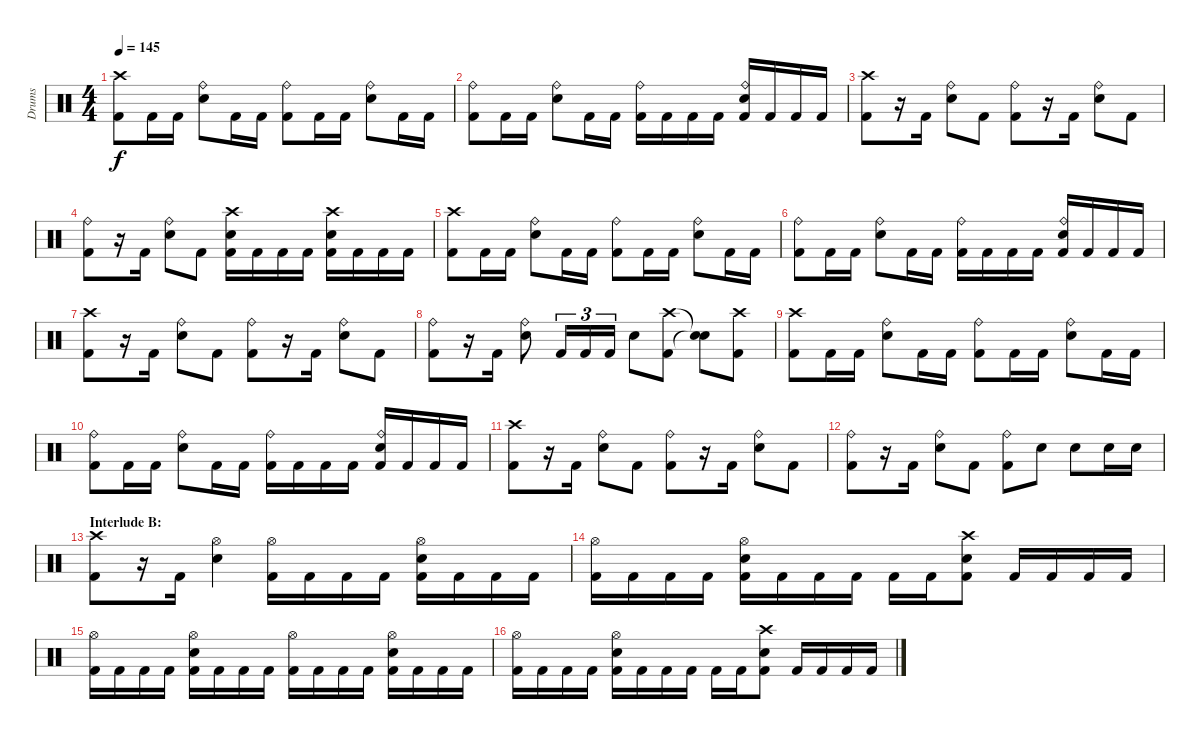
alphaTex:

\track ("Drums" "Drums") {instrument percussion}
\staff {score}
\articulation defaults
\ts (4 4)
\tempo 145
\clef neutral
\ks c
("Crash high (hit)" "Kick (hit) 2").8{dy f} "Kick (hit) 2".16 "Kick (hit) 2".16 ("Ride (bell)" "Snare (hit) 2").8 "Kick (hit) 2".16 "Kick (hit) 2".16 ("Ride (bell)" "Kick (hit) 2").8 "Kick (hit) 2".16 "Kick (hit) 2".16 ("Ride (bell)" "Snare (hit) 2").8 "Kick (hit) 2".16 "Kick (hit) 2".16 |
("Ride (bell)" "Kick (hit) 2").8 "Kick (hit) 2".16 "Kick (hit) 2".16 ("Ride (bell)" "Snare (hit) 2").8 "Kick (hit) 2".16 "Kick (hit) 2".16 ("Ride (bell)" "Kick (hit) 2").16 "Kick (hit) 2".16 "Kick (hit) 2".16 "Kick (hit) 2".16 ("Ride (bell)" "Snare (hit) 2" "Kick (hit) 2").16 "Kick (hit) 2".16 "Kick (hit) 2".16 "Kick (hit) 2".16 |
("Crash high (hit)" "Kick (hit) 2").8 r.16 "Kick (hit) 2".16 ("Ride (bell)" "Snare (hit) 2").8 "Kick (hit) 2".8 ("Ride (bell)" "Kick (hit) 2").8 r.16 "Kick (hit) 2".16 ("Ride (bell)" "Snare (hit) 2").8 "Kick (hit) 2".8 |
("Ride (bell)" "Kick (hit) 2").8 r.16 "Kick (hit) 2".16 ("Ride (bell)" "Snare (hit) 2").8 "Kick (hit) 2".8 ("Crash high (hit)" "Snare (hit) 2" "Kick (hit) 2").16 "Kick (hit) 2".16 "Kick (hit) 2".16 "Kick (hit) 2".16 ("Crash high (hit)" "Snare (hit) 2" "Kick (hit) 2").16 "Kick (hit) 2".16 "Kick (hit) 2".16 "Kick (hit) 2".16 |
("Crash high (hit)" "Kick (hit) 2").8 "Kick (hit) 2".16 "Kick (hit) 2".16 ("Ride (bell)" "Snare (hit) 2").8 "Kick (hit) 2".16 "Kick (hit) 2".16 ("Ride (bell)" "Kick (hit) 2").8 "Kick (hit) 2".16 "Kick (hit) 2".16 ("Ride (bell)" "Snare (hit) 2").8 "Kick (hit) 2".16 "Kick (hit) 2".16 |
("Ride (bell)" "Kick (hit) 2").8 "Kick (hit) 2".16 "Kick (hit) 2".16 ("Ride (bell)" "Snare (hit) 2").8 "Kick (hit) 2".16 "Kick (hit) 2".16 ("Ride (bell)" "Kick (hit) 2").16 "Kick (hit) 2".16 "Kick (hit) 2".16 "Kick (hit) 2".16 ("Ride (bell)" "Snare (hit) 2" "Kick (hit) 2").16 "Kick (hit) 2".16 "Kick (hit) 2".16 "Kick (hit) 2".16 |
("Crash high (hit)" "Kick (hit) 2").8 r.16 "Kick (hit) 2".16 ("Ride (bell)" "Snare (hit) 2").8 "Kick (hit) 2".8 ("Ride (bell)" "Kick (hit) 2").8 r.16 "Kick (hit) 2".16 ("Ride (bell)" "Snare (hit) 2").8 "Kick (hit) 2".8 |
("Ride (bell)" "Kick (hit) 2").8 r.16 "Kick (hit) 2".16 ("Ride (bell)" "Snare (hit) 2").8 "Kick (hit) 2".16{tu (3 2)} "Kick (hit) 2".16{tu (3 2)} "Kick (hit) 2".16{tu (3 2)} "Snare (hit) 2".8 ("Crash high (hit)" "Kick (hit) 2").8 ("Snare (hit)"{t} "Snare (hit)"{t}).8 ("Crash high (hit)" "Kick (hit) 2").8 |
("Crash high (hit)" "Kick (hit) 2").8 "Kick (hit) 2".16 "Kick (hit) 2".16 ("Ride (bell)" "Snare (hit) 2").8 "Kick (hit) 2".16 "Kick (hit) 2".16 ("Ride (bell)" "Kick (hit) 2").8 "Kick (hit) 2".16 "Kick (hit) 2".16 ("Ride (bell)" "Snare (hit) 2").8 "Kick (hit) 2".16 "Kick (hit) 2".16 |
("Ride (bell)" "Kick (hit) 2").8 "Kick (hit) 2".16 "Kick (hit) 2".16 ("Ride (bell)" "Snare (hit) 2").8 "Kick (hit) 2".16 "Kick (hit) 2".16 ("Ride (bell)" "Kick (hit) 2").16 "Kick (hit) 2".16 "Kick (hit) 2".16 "Kick (hit) 2".16 ("Ride (bell)" "Snare (hit) 2" "Kick (hit) 2").16 "Kick (hit) 2".16 "Kick (hit) 2".16 "Kick (hit) 2".16 |
("Crash high (hit)" "Kick (hit) 2").8 r.16 "Kick (hit) 2".16 ("Ride (bell)" "Snare (hit) 2").8 "Kick (hit) 2".8 ("Ride (bell)" "Kick (hit) 2").8 r.16 "Kick (hit) 2".16 ("Ride (bell)" "Snare (hit) 2").8 "Kick (hit) 2".8 |
("Ride (bell)" "Kick (hit) 2").8 r.16 "Kick (hit) 2".16 ("Ride (bell)" "Snare (hit) 2").8 "Kick (hit) 2".8 ("Ride (bell)" "Kick (hit) 2").8 "Snare (hit) 2".8 "Snare (hit) 2".8 "Snare (hit) 2".16 "Snare (hit) 2".16 |
\section ("" "Interlude B:")
("Crash high (hit)" "Kick (hit) 2").8 r.16 "Kick (hit) 2".16 ("Hi-Hat (open)" "Snare (hit) 2").4 ("Hi-Hat (open)" "Kick (hit) 2").16 "Kick (hit) 2".16 "Kick (hit) 2".16 "Kick (hit) 2".16 ("Hi-Hat (open)" "Snare (hit) 2" "Kick (hit) 2").16 "Kick (hit) 2".16 "Kick (hit) 2".16 "Kick (hit) 2".16 |
("Hi-Hat (open)" "Kick (hit) 2").16 "Kick (hit) 2".16 "Kick (hit) 2".16 "Kick (hit) 2".16 ("Hi-Hat (open)" "Snare (hit) 2" "Kick (hit) 2").16 "Kick (hit) 2".16 "Kick (hit) 2".16 "Kick (hit) 2".16 "Kick (hit) 2".16 "Kick (hit) 2".16 ("Crash high (hit)" "Snare (hit) 2" "Kick (hit) 2").8 "Kick (hit) 2".16 "Kick (hit) 2".16 "Kick (hit) 2".16 "Kick (hit) 2".16 |
("Hi-Hat (open)" "Kick (hit) 2").16 "Kick (hit) 2".16 "Kick (hit) 2".16 "Kick (hit) 2".16 ("Hi-Hat (open)" "Snare (hit) 2" "Kick (hit) 2").16 "Kick (hit) 2".16 "Kick (hit) 2".16 "Kick (hit) 2".16 ("Hi-Hat (open)" "Kick (hit) 2").16 "Kick (hit) 2".16 "Kick (hit) 2".16 "Kick (hit) 2".16 ("Hi-Hat (open)" "Snare (hit) 2" "Kick (hit) 2").16 "Kick (hit) 2".16 "Kick (hit) 2".16 "Kick (hit) 2".16 |
("Hi-Hat (open)" "Kick (hit) 2").16 "Kick (hit) 2".16 "Kick (hit) 2".16 "Kick (hit) 2".16 ("Hi-Hat (open)" "Snare (hit) 2" "Kick (hit) 2").16 "Kick (hit) 2".16 "Kick (hit) 2".16 "Kick (hit) 2".16 "Kick (hit) 2".16 "Kick (hit) 2".16 ("Crash high (hit)" "Snare (hit) 2" "Kick (hit) 2").8 "Kick (hit) 2".16 "Kick (hit) 2".16 "Kick (hit) 2".16 "Kick (hit) 2".16
